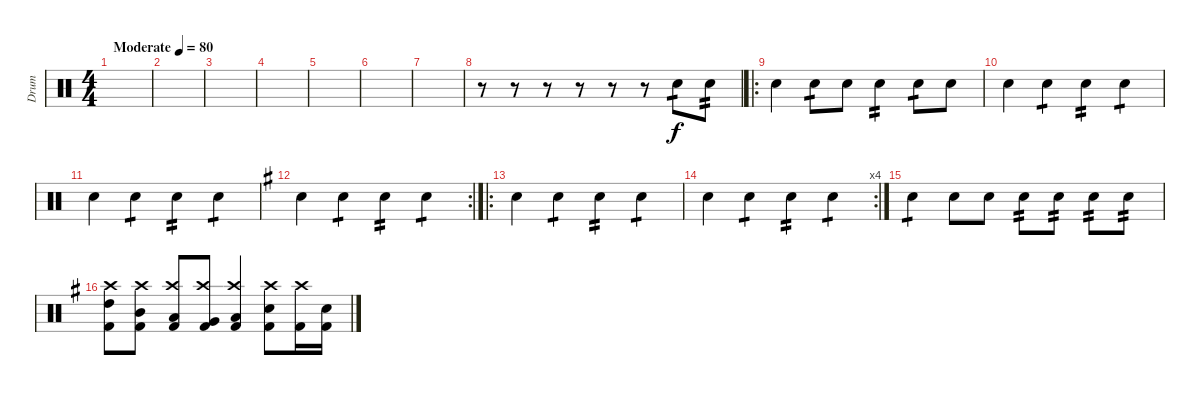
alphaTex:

\track ("Drum" "Drum") {instrument percussion}
\staff {score}
\articulation defaults
\ts (4 4)
\tempo (80 "Moderate")
\clef neutral
\ks c
|
|
|
|
|
|
|
r.8 r.8 r.8 r.8 r.8 r.8 "Electric Snare (hit)".8{tp 1} "Electric Snare (hit)".8{tp 2} |
\ro "Electric Snare (hit)".4 "Electric Snare (hit)".8{tp 1} "Electric Snare (hit)".8 "Electric Snare (hit)".4{tp 2} "Electric Snare (hit)".8{tp 1} "Electric Snare (hit)".8
|
"Electric Snare (hit)".4 "Electric Snare (hit)".4{tp 1} "Electric Snare (hit)".4{tp 2} "Electric Snare (hit)".4{tp 1} |
"Electric Snare (hit)".4 "Electric Snare (hit)".4{tp 1} "Electric Snare (hit)".4{tp 2} "Electric Snare (hit)".4{tp 1} |
\rc 2
\ks eminor "Electric Snare (hit)".4 "Electric Snare (hit)".4{tp 1} "Electric Snare (hit)".4{tp 2} "Electric Snare (hit)".4{tp 1}
|
\ro "Electric Snare (hit)".4 "Electric Snare (hit)".4{tp 1} "Electric Snare (hit)".4{tp 2} "Electric Snare (hit)".4{tp 1}
|
\rc 4 "Electric Snare (hit)".4 "Electric Snare (hit)".4{tp 1} "Electric Snare (hit)".4{tp 2} "Electric Snare (hit)".4{tp 1}
|
"Electric Snare (hit)".4{tp 1} "Electric Snare (hit)".8 "Electric Snare (hit)".8 "Electric Snare (hit)".8{tp 2} "Electric Snare (hit)".8{tp 2} "Electric Snare (hit)".8{tp 2} "Electric Snare (hit)".8{tp 2} |
("High Tom (hit)" "Kick (hit) 2" "Crash high (hit)").8 ("Mid Tom (hit)" "Kick (hit) 2" "Crash high (hit)").8 ("Low Tom (hit)" "Kick (hit) 2" "Crash high (hit)").8 ("Very Low Tom (hit)" "Kick (hit) 2" "Crash high (hit)").8 ("Low Floor Tom (hit)" "Kick (hit) 2" "Crash high (hit)").4 ("Electric Snare (hit)" "Kick (hit) 2" "Crash high (hit)").8 ("Kick (hit) 2" "Crash high (hit)").16 ("Electric Snare (hit)" "Kick (hit) 2").16
